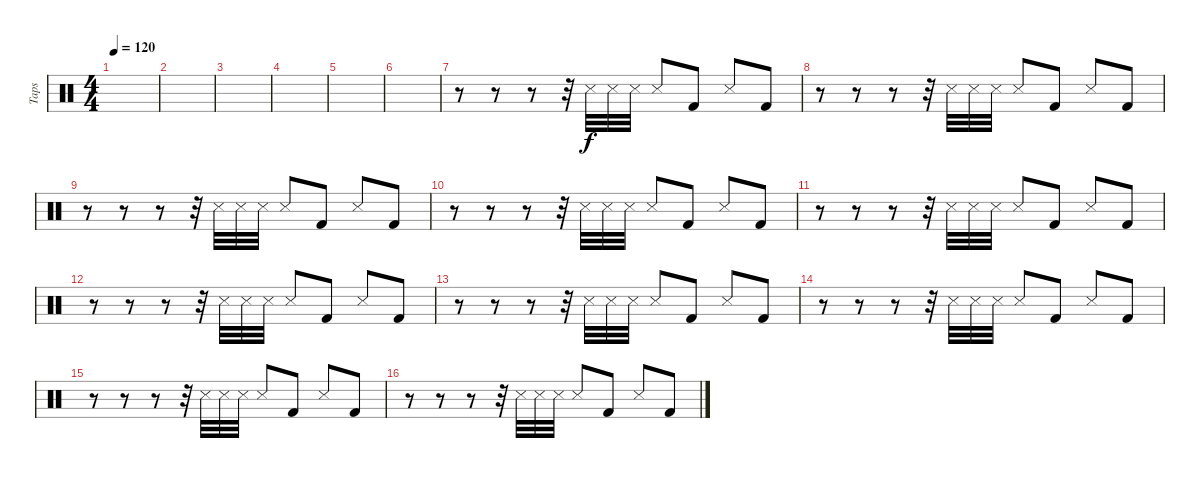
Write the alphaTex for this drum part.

\track ("Taps" "Taps") {instrument percussion}
\staff {score}
\articulation defaults
\ts (4 4)
\tempo 120
\clef neutral
\ks c
|
|
|
|
|
|
r.8 r.8 r.8 r.32 "Snare (side stick) 3".32 "Snare (side stick) 3".32 "Snare (side stick) 3".32 "Snare (side stick) 3".8 "Kick (hit) 2".8 "Snare (side stick) 3".8 "Kick (hit) 2".8 |
r.8 r.8 r.8 r.32 "Snare (side stick) 3".32 "Snare (side stick) 3".32 "Snare (side stick) 3".32 "Snare (side stick) 3".8 "Kick (hit) 2".8 "Snare (side stick) 3".8 "Kick (hit) 2".8 |
r.8 r.8 r.8 r.32 "Snare (side stick) 3".32 "Snare (side stick) 3".32 "Snare (side stick) 3".32 "Snare (side stick) 3".8 "Kick (hit) 2".8 "Snare (side stick) 3".8 "Kick (hit) 2".8 |
r.8 r.8 r.8 r.32 "Snare (side stick) 3".32 "Snare (side stick) 3".32 "Snare (side stick) 3".32 "Snare (side stick) 3".8 "Kick (hit) 2".8 "Snare (side stick) 3".8 "Kick (hit) 2".8 |
r.8 r.8 r.8 r.32 "Snare (side stick) 3".32 "Snare (side stick) 3".32 "Snare (side stick) 3".32 "Snare (side stick) 3".8 "Kick (hit) 2".8 "Snare (side stick) 3".8 "Kick (hit) 2".8 |
r.8 r.8 r.8 r.32 "Snare (side stick) 3".32 "Snare (side stick) 3".32 "Snare (side stick) 3".32 "Snare (side stick) 3".8 "Kick (hit) 2".8 "Snare (side stick) 3".8 "Kick (hit) 2".8 |
r.8 r.8 r.8 r.32 "Snare (side stick) 3".32 "Snare (side stick) 3".32 "Snare (side stick) 3".32 "Snare (side stick) 3".8 "Kick (hit) 2".8 "Snare (side stick) 3".8 "Kick (hit) 2".8 |
r.8 r.8 r.8 r.32 "Snare (side stick) 3".32 "Snare (side stick) 3".32 "Snare (side stick) 3".32 "Snare (side stick) 3".8 "Kick (hit) 2".8 "Snare (side stick) 3".8 "Kick (hit) 2".8 |
r.8 r.8 r.8 r.32 "Snare (side stick) 3".32 "Snare (side stick) 3".32 "Snare (side stick) 3".32 "Snare (side stick) 3".8 "Kick (hit) 2".8 "Snare (side stick) 3".8 "Kick (hit) 2".8 |
r.8 r.8 r.8 r.32 "Snare (side stick) 3".32 "Snare (side stick) 3".32 "Snare (side stick) 3".32 "Snare (side stick) 3".8 "Kick (hit) 2".8 "Snare (side stick) 3".8 "Kick (hit) 2".8
